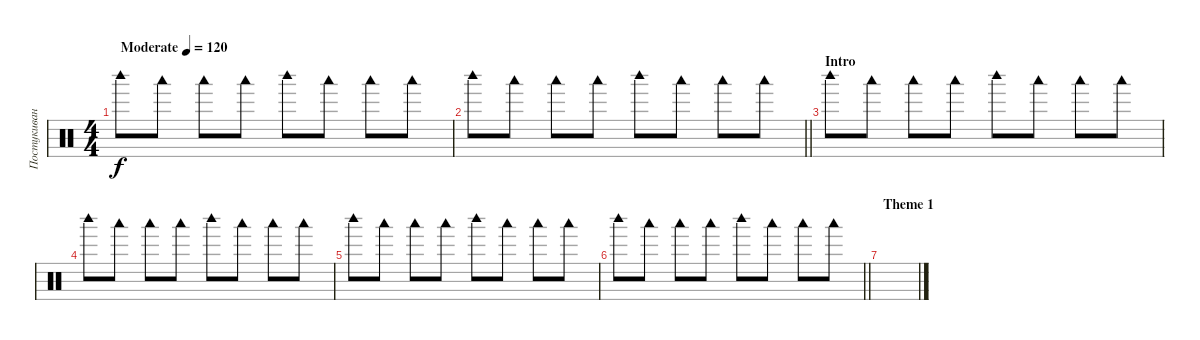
\track ("Постукивания по верхней деке" "Постукиван") {instrument percussion}
\staff {score}
\articulation defaults
\ts (4 4)
\tempo (120 "Moderate")
\clef neutral
\ks c "Woodblock high (hit)".8{dy f} "Woodblock low (hit)".8{volume 10} "Woodblock low (hit)".8 "Woodblock low (hit)".8 "Woodblock high (hit)".8{volume 13} "Woodblock low (hit)".8{volume 10} "Woodblock low (hit)".8 "Woodblock low (hit)".8
|
\barLineRight lightlight "Woodblock high (hit)".8 "Woodblock low (hit)".8{volume 10} "Woodblock low (hit)".8 "Woodblock low (hit)".8 "Woodblock high (hit)".8{volume 13} "Woodblock low (hit)".8{volume 10} "Woodblock low (hit)".8 "Woodblock low (hit)".8
|
\section ("" "Intro")
"Woodblock high (hit)".8{volume 13} "Woodblock low (hit)".8{volume 10} "Woodblock low (hit)".8 "Woodblock low (hit)".8 "Woodblock high (hit)".8{volume 13} "Woodblock low (hit)".8{volume 10} "Woodblock low (hit)".8 "Woodblock low (hit)".8 |
"Woodblock high (hit)".8{volume 13} "Woodblock low (hit)".8{volume 10} "Woodblock low (hit)".8 "Woodblock low (hit)".8 "Woodblock high (hit)".8{volume 13} "Woodblock low (hit)".8{volume 10} "Woodblock low (hit)".8 "Woodblock low (hit)".8 |
"Woodblock high (hit)".8 "Woodblock low (hit)".8{volume 10} "Woodblock low (hit)".8 "Woodblock low (hit)".8 "Woodblock high (hit)".8{volume 13} "Woodblock low (hit)".8{volume 10} "Woodblock low (hit)".8 "Woodblock low (hit)".8 |
\barLineRight lightlight "Woodblock high (hit)".8 "Woodblock low (hit)".8{volume 10} "Woodblock low (hit)".8 "Woodblock low (hit)".8 "Woodblock high (hit)".8{volume 13} "Woodblock low (hit)".8{volume 10} "Woodblock low (hit)".8 "Woodblock low (hit)".8
|
\section ("" "Theme 1")
